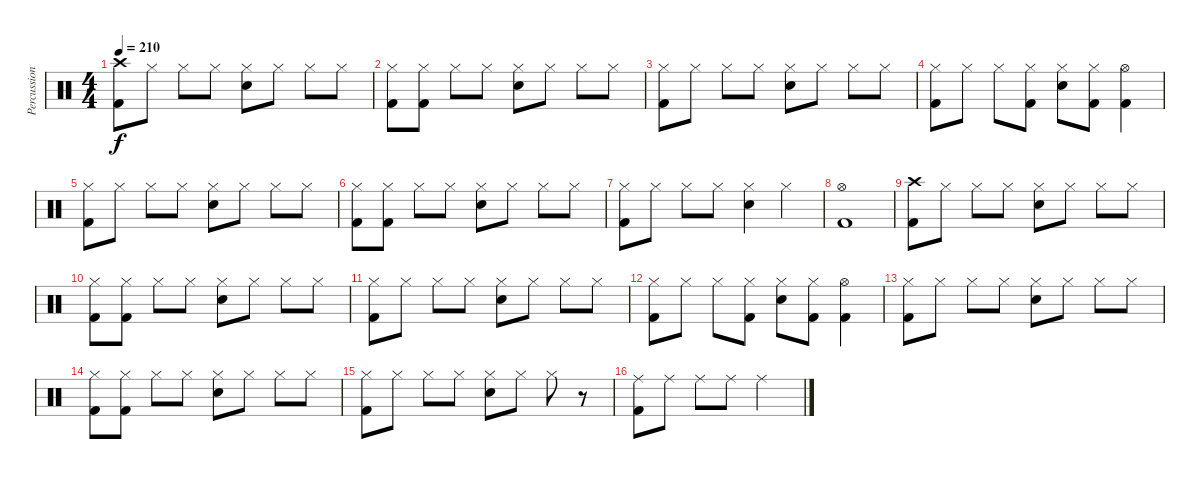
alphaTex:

\track ("Percussion" "Percussion") {instrument percussion}
\staff {score}
\articulation defaults
\ts (4 4)
\tempo 210
\clef neutral
\ks c
("Crash high (hit)" "Kick (hit) 2").8{dy f} "Hi-Hat (closed)".8 "Hi-Hat (closed)".8 "Hi-Hat (closed)".8 ("Hi-Hat (closed)" "Electric Snare (hit)").8 "Hi-Hat (closed)".8 "Hi-Hat (closed)".8 "Hi-Hat (closed)".8 |
("Hi-Hat (closed)" "Kick (hit) 2").8 ("Hi-Hat (closed)" "Kick (hit) 2").8 "Hi-Hat (closed)".8 "Hi-Hat (closed)".8 ("Hi-Hat (closed)" "Electric Snare (hit)").8 "Hi-Hat (closed)".8 "Hi-Hat (closed)".8 "Hi-Hat (closed)".8 |
("Hi-Hat (closed)" "Kick (hit) 2").8 "Hi-Hat (closed)".8 "Hi-Hat (closed)".8 "Hi-Hat (closed)".8 ("Hi-Hat (closed)" "Electric Snare (hit)").8 "Hi-Hat (closed)".8 "Hi-Hat (closed)".8 "Hi-Hat (closed)".8 |
("Hi-Hat (closed)" "Kick (hit) 2").8 "Hi-Hat (closed)".8 "Hi-Hat (closed)".8 ("Hi-Hat (closed)" "Kick (hit) 2").8 ("Hi-Hat (closed)" "Electric Snare (hit)").8 ("Hi-Hat (closed)" "Kick (hit) 2").8 ("Hi-Hat (open)" "Kick (hit) 2").4 |
("Hi-Hat (closed)" "Kick (hit) 2").8 "Hi-Hat (closed)".8 "Hi-Hat (closed)".8 "Hi-Hat (closed)".8 ("Hi-Hat (closed)" "Electric Snare (hit)").8 "Hi-Hat (closed)".8 "Hi-Hat (closed)".8 "Hi-Hat (closed)".8 |
("Hi-Hat (closed)" "Kick (hit) 2").8 ("Hi-Hat (closed)" "Kick (hit) 2").8 "Hi-Hat (closed)".8 "Hi-Hat (closed)".8 ("Hi-Hat (closed)" "Electric Snare (hit)").8 "Hi-Hat (closed)".8 "Hi-Hat (closed)".8 "Hi-Hat (closed)".8 |
("Hi-Hat (closed)" "Kick (hit) 2").8 "Hi-Hat (closed)".8 "Hi-Hat (closed)".8 "Hi-Hat (closed)".8 ("Hi-Hat (closed)" "Electric Snare (hit)").4 "Hi-Hat (closed)".4 |
("Hi-Hat (open)" "Kick (hit) 2").1 |
("Crash high (hit)" "Kick (hit) 2").8 "Hi-Hat (closed)".8 "Hi-Hat (closed)".8 "Hi-Hat (closed)".8 ("Hi-Hat (closed)" "Electric Snare (hit)").8 "Hi-Hat (closed)".8 "Hi-Hat (closed)".8 "Hi-Hat (closed)".8 |
("Hi-Hat (closed)" "Kick (hit) 2").8 ("Hi-Hat (closed)" "Kick (hit) 2").8 "Hi-Hat (closed)".8 "Hi-Hat (closed)".8 ("Hi-Hat (closed)" "Electric Snare (hit)").8 "Hi-Hat (closed)".8 "Hi-Hat (closed)".8 "Hi-Hat (closed)".8 |
("Hi-Hat (closed)" "Kick (hit) 2").8 "Hi-Hat (closed)".8 "Hi-Hat (closed)".8 "Hi-Hat (closed)".8 ("Hi-Hat (closed)" "Electric Snare (hit)").8 "Hi-Hat (closed)".8 "Hi-Hat (closed)".8 "Hi-Hat (closed)".8 |
("Hi-Hat (closed)" "Kick (hit) 2").8 "Hi-Hat (closed)".8 "Hi-Hat (closed)".8 ("Hi-Hat (closed)" "Kick (hit) 2").8 ("Hi-Hat (closed)" "Electric Snare (hit)").8 ("Hi-Hat (closed)" "Kick (hit) 2").8 ("Hi-Hat (open)" "Kick (hit) 2").4 |
("Hi-Hat (closed)" "Kick (hit) 2").8 "Hi-Hat (closed)".8 "Hi-Hat (closed)".8 "Hi-Hat (closed)".8 ("Hi-Hat (closed)" "Electric Snare (hit)").8 "Hi-Hat (closed)".8 "Hi-Hat (closed)".8 "Hi-Hat (closed)".8 |
("Hi-Hat (closed)" "Kick (hit) 2").8 ("Hi-Hat (closed)" "Kick (hit) 2").8 "Hi-Hat (closed)".8 "Hi-Hat (closed)".8 ("Hi-Hat (closed)" "Electric Snare (hit)").8 "Hi-Hat (closed)".8 "Hi-Hat (closed)".8 "Hi-Hat (closed)".8 |
("Hi-Hat (closed)" "Kick (hit) 2").8 "Hi-Hat (closed)".8 "Hi-Hat (closed)".8 "Hi-Hat (closed)".8 ("Hi-Hat (closed)" "Electric Snare (hit)").8 "Hi-Hat (closed)".8 "Hi-Hat (closed)".8 r.8 |
("Ride (middle)" "Kick (hit) 2").8 "Ride (middle)".8 "Ride (middle)".8 "Ride (middle)".8 "Ride (middle)".2
